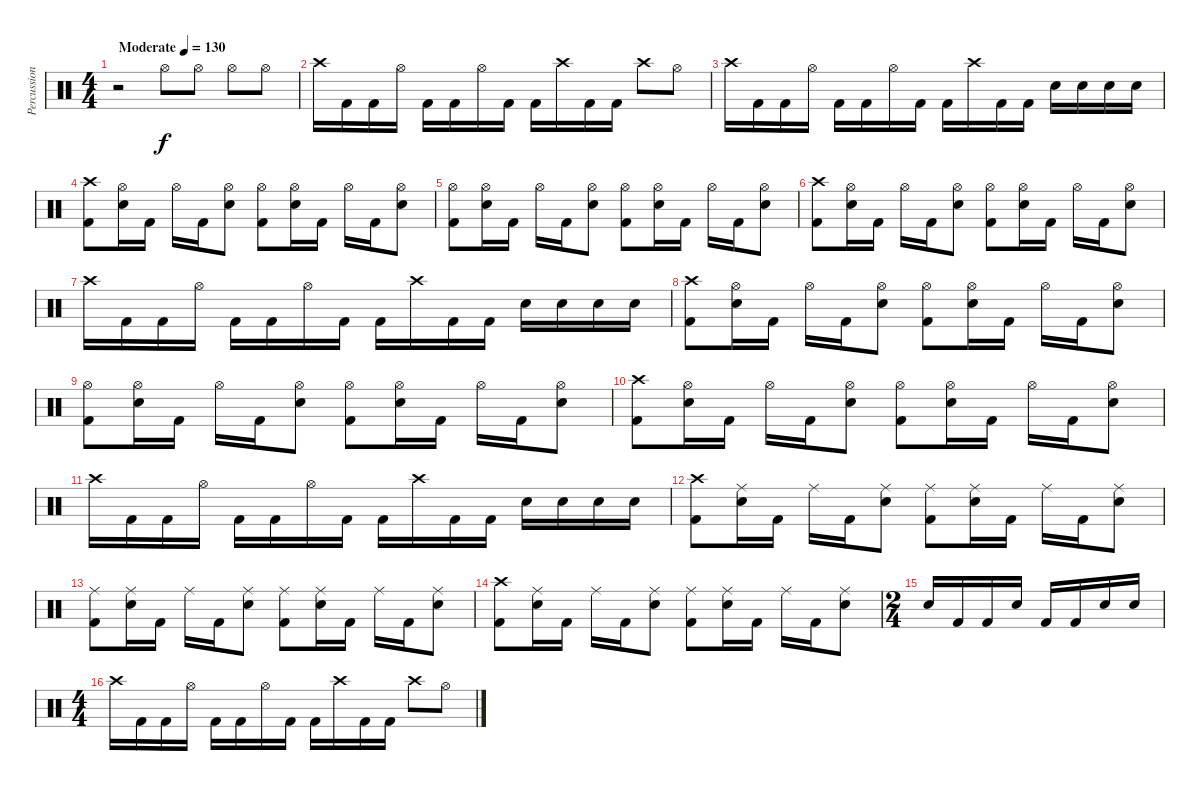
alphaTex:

\track ("Percussion" "Percussion") {instrument percussion}
\staff {score}
\articulation defaults
\ts (4 4)
\tempo (130 "Moderate")
\clef neutral
\ks c
r.2{dy f} "Hi-Hat (open)".8 "Hi-Hat (open)".8 "Hi-Hat (open)".8 "Hi-Hat (open)".8 |
"Crash high (hit)".16 "Kick (hit) 2".16 "Kick (hit) 2".16 "Hi-Hat (open)".16 "Kick (hit) 2".16 "Kick (hit) 2".16 "Hi-Hat (open)".16 "Kick (hit) 2".16 "Kick (hit) 2".16 "Crash high (hit)".16 "Kick (hit) 2".16 "Kick (hit) 2".16 "Crash high (hit)".8 "Hi-Hat (open)".8 |
"Crash high (hit)".16 "Kick (hit) 2".16 "Kick (hit) 2".16 "Hi-Hat (open)".16 "Kick (hit) 2".16 "Kick (hit) 2".16 "Hi-Hat (open)".16 "Kick (hit) 2".16 "Kick (hit) 2".16 "Crash high (hit)".16 "Kick (hit) 2".16 "Kick (hit) 2".16 "Snare (hit) 2".16 "Snare (hit) 2".16 "Snare (hit) 2".16 "Snare (hit) 2".16 |
("Crash high (hit)" "Kick (hit) 2").8 ("Hi-Hat (open)" "Snare (hit) 2").16 "Kick (hit) 2".16 "Hi-Hat (open)".16 "Kick (hit) 2".16 ("Hi-Hat (open)" "Snare (hit) 2").8 ("Hi-Hat (open)" "Kick (hit) 2").8 ("Hi-Hat (open)" "Snare (hit) 2").16 "Kick (hit) 2".16 "Hi-Hat (open)".16 "Kick (hit) 2".16 ("Hi-Hat (open)" "Snare (hit) 2").8 |
("Hi-Hat (open)" "Kick (hit) 2").8 ("Hi-Hat (open)" "Snare (hit) 2").16 "Kick (hit) 2".16 "Hi-Hat (open)".16 "Kick (hit) 2".16 ("Hi-Hat (open)" "Snare (hit) 2").8 ("Hi-Hat (open)" "Kick (hit) 2").8 ("Hi-Hat (open)" "Snare (hit) 2").16 "Kick (hit) 2".16 "Hi-Hat (open)".16 "Kick (hit) 2".16 ("Hi-Hat (open)" "Snare (hit) 2").8 |
("Crash high (hit)" "Kick (hit) 2").8 ("Hi-Hat (open)" "Snare (hit) 2").16 "Kick (hit) 2".16 "Hi-Hat (open)".16 "Kick (hit) 2".16 ("Hi-Hat (open)" "Snare (hit) 2").8 ("Hi-Hat (open)" "Kick (hit) 2").8 ("Hi-Hat (open)" "Snare (hit) 2").16 "Kick (hit) 2".16 "Hi-Hat (open)".16 "Kick (hit) 2".16 ("Hi-Hat (open)" "Snare (hit) 2").8 |
"Crash high (hit)".16 "Kick (hit) 2".16 "Kick (hit) 2".16 "Hi-Hat (open)".16 "Kick (hit) 2".16 "Kick (hit) 2".16 "Hi-Hat (open)".16 "Kick (hit) 2".16 "Kick (hit) 2".16 "Crash high (hit)".16 "Kick (hit) 2".16 "Kick (hit) 2".16 "Snare (hit) 2".16 "Snare (hit) 2".16 "Snare (hit) 2".16 "Snare (hit) 2".16 |
("Crash high (hit)" "Kick (hit) 2").8 ("Hi-Hat (open)" "Snare (hit) 2").16 "Kick (hit) 2".16 "Hi-Hat (open)".16 "Kick (hit) 2".16 ("Hi-Hat (open)" "Snare (hit) 2").8 ("Hi-Hat (open)" "Kick (hit) 2").8 ("Hi-Hat (open)" "Snare (hit) 2").16 "Kick (hit) 2".16 "Hi-Hat (open)".16 "Kick (hit) 2".16 ("Hi-Hat (open)" "Snare (hit) 2").8 |
("Hi-Hat (open)" "Kick (hit) 2").8 ("Hi-Hat (open)" "Snare (hit) 2").16 "Kick (hit) 2".16 "Hi-Hat (open)".16 "Kick (hit) 2".16 ("Hi-Hat (open)" "Snare (hit) 2").8 ("Hi-Hat (open)" "Kick (hit) 2").8 ("Hi-Hat (open)" "Snare (hit) 2").16 "Kick (hit) 2".16 "Hi-Hat (open)".16 "Kick (hit) 2".16 ("Hi-Hat (open)" "Snare (hit) 2").8 |
("Crash high (hit)" "Kick (hit) 2").8 ("Hi-Hat (open)" "Snare (hit) 2").16 "Kick (hit) 2".16 "Hi-Hat (open)".16 "Kick (hit) 2".16 ("Hi-Hat (open)" "Snare (hit) 2").8 ("Hi-Hat (open)" "Kick (hit) 2").8 ("Hi-Hat (open)" "Snare (hit) 2").16 "Kick (hit) 2".16 "Hi-Hat (open)".16 "Kick (hit) 2".16 ("Hi-Hat (open)" "Snare (hit) 2").8 |
"Crash high (hit)".16 "Kick (hit) 2".16 "Kick (hit) 2".16 "Hi-Hat (open)".16 "Kick (hit) 2".16 "Kick (hit) 2".16 "Hi-Hat (open)".16 "Kick (hit) 2".16 "Kick (hit) 2".16 "Crash high (hit)".16 "Kick (hit) 2".16 "Kick (hit) 2".16 "Snare (hit) 2".16 "Snare (hit) 2".16 "Snare (hit) 2".16 "Snare (hit) 2".16 |
("Crash high (hit)" "Kick (hit) 2").8 ("Ride (middle)" "Snare (hit) 2").16 "Kick (hit) 2".16 "Ride (middle)".16 "Kick (hit) 2".16 ("Ride (middle)" "Snare (hit) 2").8 ("Ride (middle)" "Kick (hit) 2").8 ("Ride (middle)" "Snare (hit) 2").16 "Kick (hit) 2".16 "Ride (middle)".16 "Kick (hit) 2".16 ("Ride (middle)" "Snare (hit) 2").8 |
("Ride (middle)" "Kick (hit) 2").8 ("Ride (middle)" "Snare (hit) 2").16 "Kick (hit) 2".16 "Ride (middle)".16 "Kick (hit) 2".16 ("Ride (middle)" "Snare (hit) 2").8 ("Ride (middle)" "Kick (hit) 2").8 ("Ride (middle)" "Snare (hit) 2").16 "Kick (hit) 2".16 "Ride (middle)".16 "Kick (hit) 2".16 ("Ride (middle)" "Snare (hit) 2").8 |
("Crash high (hit)" "Kick (hit) 2").8 ("Ride (middle)" "Snare (hit) 2").16 "Kick (hit) 2".16 "Ride (middle)".16 "Kick (hit) 2".16 ("Ride (middle)" "Snare (hit) 2").8 ("Ride (middle)" "Kick (hit) 2").8 ("Ride (middle)" "Snare (hit) 2").16 "Kick (hit) 2".16 "Ride (middle)".16 "Kick (hit) 2".16 ("Ride (middle)" "Snare (hit) 2").8 |
\ts (2 4)
"Snare (hit) 2".16 "Kick (hit) 2".16 "Kick (hit) 2".16 "Snare (hit) 2".16 "Kick (hit) 2".16 "Kick (hit) 2".16 "Snare (hit) 2".16 "Snare (hit) 2".16 |
\ts (4 4)
"Crash high (hit)".16 "Kick (hit) 2".16 "Kick (hit) 2".16 "Hi-Hat (open)".16 "Kick (hit) 2".16 "Kick (hit) 2".16 "Hi-Hat (open)".16 "Kick (hit) 2".16 "Kick (hit) 2".16 "Crash high (hit)".16 "Kick (hit) 2".16 "Kick (hit) 2".16 "Crash high (hit)".8 "Hi-Hat (open)".8
